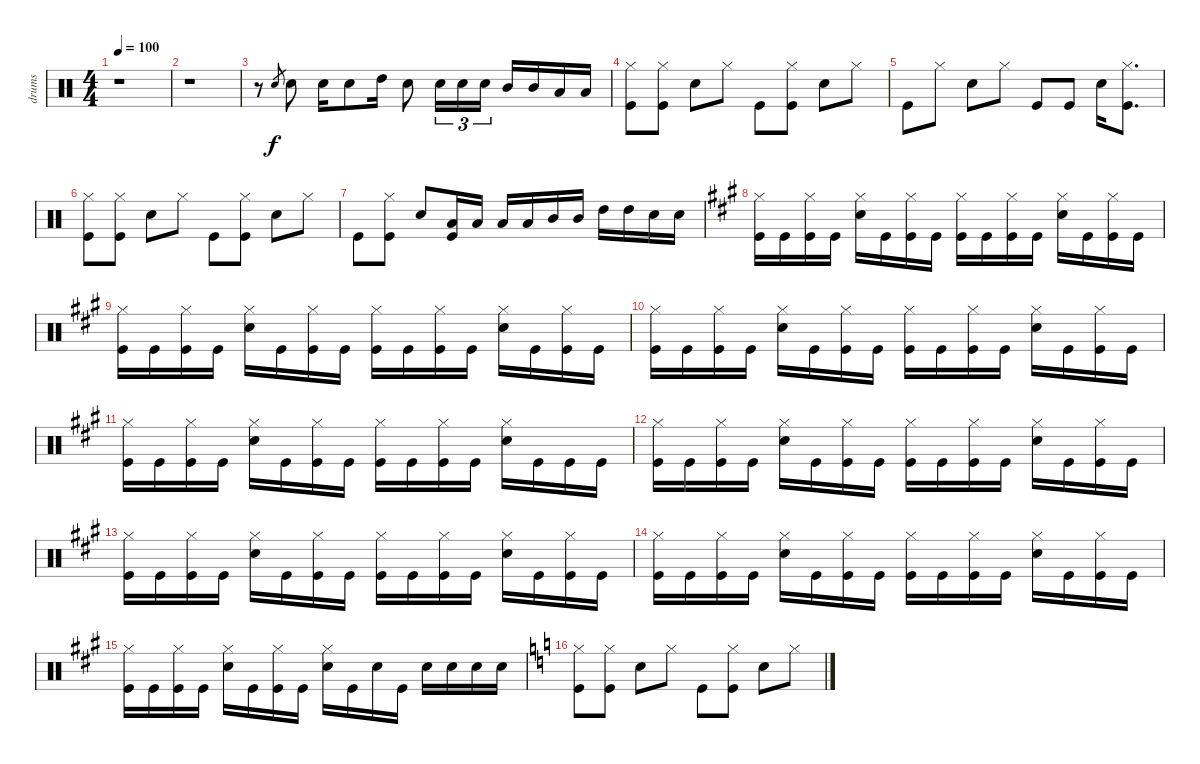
\track ("drums" "drums") {instrument percussion}
\staff {score}
\articulation defaults
\ts (4 4)
\tempo 100
\clef neutral
\ks aminor
r.1{dy f} |
r.1 |
r.8 "Snare (hit) 2".8{gr} "Snare (hit) 2".8 "Snare (hit) 2".16 "Snare (hit) 2".8 "High Tom (hit)".16 "Snare (hit) 2".8 "Snare (hit) 2".16{tu (3 2)} "Snare (hit) 2".16{tu (3 2)} "Snare (hit) 2".16{tu (3 2)} "Mid Tom (hit)".16 "Mid Tom (hit)".16 "Low Tom (hit)".16 "Low Tom (hit)".16 |
("Hi-Hat (closed)" "Kick (hit)").8 ("Hi-Hat (closed)" "Kick (hit)").8 "Snare (hit) 2".8 "Hi-Hat (closed)".8 "Kick (hit)".8 ("Hi-Hat (closed)" "Kick (hit)").8 "Snare (hit) 2".8 "Hi-Hat (closed)".8 |
"Kick (hit)".8 "Hi-Hat (closed)".8 "Snare (hit) 2".8 "Hi-Hat (closed)".8 "Kick (hit)".8 "Kick (hit)".8 "Snare (hit) 2".16 ("Hi-Hat (closed)" "Kick (hit)").8{d} |
("Hi-Hat (closed)" "Kick (hit)").8 ("Hi-Hat (closed)" "Kick (hit)").8 "Snare (hit) 2".8 "Hi-Hat (closed)".8 "Kick (hit)".8 ("Hi-Hat (closed)" "Kick (hit)").8 "Snare (hit) 2".8 "Hi-Hat (closed)".8 |
"Kick (hit)".8 ("Hi-Hat (closed)" "Kick (hit)").8 "Snare (hit) 2".8 ("Low Tom (hit)" "Kick (hit)").16 "Low Tom (hit)".16 "Low Tom (hit)".16 "Low Tom (hit)".16 "Mid Tom (hit)".16 "Mid Tom (hit)".16 "High Tom (hit)".16 "High Tom (hit)".16 "Snare (hit) 2".16 "Snare (hit) 2".16 |
\ks f#minor
("Hi-Hat (closed)" "Kick (hit)").16 "Kick (hit)".16 ("Hi-Hat (closed)" "Kick (hit)").16 "Kick (hit)".16 ("Hi-Hat (closed)" "Snare (hit) 2").16 "Kick (hit)".16 ("Hi-Hat (closed)" "Kick (hit)").16 "Kick (hit)".16 ("Hi-Hat (closed)" "Kick (hit)").16 "Kick (hit)".16 ("Hi-Hat (closed)" "Kick (hit)").16 "Kick (hit)".16 ("Hi-Hat (closed)" "Snare (hit) 2").16 "Kick (hit)".16 ("Hi-Hat (closed)" "Kick (hit)").16 "Kick (hit)".16 |
("Hi-Hat (closed)" "Kick (hit)").16 "Kick (hit)".16 ("Hi-Hat (closed)" "Kick (hit)").16 "Kick (hit)".16 ("Hi-Hat (closed)" "Snare (hit) 2").16 "Kick (hit)".16 ("Hi-Hat (closed)" "Kick (hit)").16 "Kick (hit)".16 ("Hi-Hat (closed)" "Kick (hit)").16 "Kick (hit)".16 ("Hi-Hat (closed)" "Kick (hit)").16 "Kick (hit)".16 ("Hi-Hat (closed)" "Snare (hit) 2").16 "Kick (hit)".16 ("Hi-Hat (closed)" "Kick (hit)").16 "Kick (hit)".16 |
("Hi-Hat (closed)" "Kick (hit)").16 "Kick (hit)".16 ("Hi-Hat (closed)" "Kick (hit)").16 "Kick (hit)".16 ("Hi-Hat (closed)" "Snare (hit) 2").16 "Kick (hit)".16 ("Hi-Hat (closed)" "Kick (hit)").16 "Kick (hit)".16 ("Hi-Hat (closed)" "Kick (hit)").16 "Kick (hit)".16 ("Hi-Hat (closed)" "Kick (hit)").16 "Kick (hit)".16 ("Hi-Hat (closed)" "Snare (hit) 2").16 "Kick (hit)".16 ("Hi-Hat (closed)" "Kick (hit)").16 "Kick (hit)".16 |
("Hi-Hat (closed)" "Kick (hit)").16 "Kick (hit)".16 ("Hi-Hat (closed)" "Kick (hit)").16 "Kick (hit)".16 ("Hi-Hat (closed)" "Snare (hit) 2").16 "Kick (hit)".16 ("Hi-Hat (closed)" "Kick (hit)").16 "Kick (hit)".16 ("Hi-Hat (closed)" "Kick (hit)").16 "Kick (hit)".16 ("Hi-Hat (closed)" "Kick (hit)").16 "Kick (hit)".16 ("Hi-Hat (closed)" "Snare (hit) 2").16 "Kick (hit)".16 "Kick (hit)".16 "Kick (hit)".16 |
("Hi-Hat (closed)" "Kick (hit)").16 "Kick (hit)".16 ("Hi-Hat (closed)" "Kick (hit)").16 "Kick (hit)".16 ("Hi-Hat (closed)" "Snare (hit) 2").16 "Kick (hit)".16 ("Hi-Hat (closed)" "Kick (hit)").16 "Kick (hit)".16 ("Hi-Hat (closed)" "Kick (hit)").16 "Kick (hit)".16 ("Hi-Hat (closed)" "Kick (hit)").16 "Kick (hit)".16 ("Hi-Hat (closed)" "Snare (hit) 2").16 "Kick (hit)".16 ("Hi-Hat (closed)" "Kick (hit)").16 "Kick (hit)".16 |
("Hi-Hat (closed)" "Kick (hit)").16 "Kick (hit)".16 ("Hi-Hat (closed)" "Kick (hit)").16 "Kick (hit)".16 ("Hi-Hat (closed)" "Snare (hit) 2").16 "Kick (hit)".16 ("Hi-Hat (closed)" "Kick (hit)").16 "Kick (hit)".16 ("Hi-Hat (closed)" "Kick (hit)").16 "Kick (hit)".16 ("Hi-Hat (closed)" "Kick (hit)").16 "Kick (hit)".16 ("Hi-Hat (closed)" "Snare (hit) 2").16 "Kick (hit)".16 ("Hi-Hat (closed)" "Kick (hit)").16 "Kick (hit)".16 |
("Hi-Hat (closed)" "Kick (hit)").16 "Kick (hit)".16 ("Hi-Hat (closed)" "Kick (hit)").16 "Kick (hit)".16 ("Hi-Hat (closed)" "Snare (hit) 2").16 "Kick (hit)".16 ("Hi-Hat (closed)" "Kick (hit)").16 "Kick (hit)".16 ("Hi-Hat (closed)" "Kick (hit)").16 "Kick (hit)".16 ("Hi-Hat (closed)" "Kick (hit)").16 "Kick (hit)".16 ("Hi-Hat (closed)" "Snare (hit) 2").16 "Kick (hit)".16 ("Hi-Hat (closed)" "Kick (hit)").16 "Kick (hit)".16 |
("Hi-Hat (closed)" "Kick (hit)").16 "Kick (hit)".16 ("Hi-Hat (closed)" "Kick (hit)").16 "Kick (hit)".16 ("Hi-Hat (closed)" "Snare (hit) 2").16 "Kick (hit)".16 ("Hi-Hat (closed)" "Kick (hit)").16 "Kick (hit)".16 ("Hi-Hat (closed)" "Snare (hit) 2").16 "Kick (hit)".16 "Snare (hit) 2".16 "Kick (hit)".16 "Snare (hit) 2".16 "Snare (hit) 2".16 "Snare (hit) 2".16 "Snare (hit) 2".16 |
\ks aminor
("Hi-Hat (closed)" "Kick (hit)").8 ("Hi-Hat (closed)" "Kick (hit)").8 "Snare (hit) 2".8 "Hi-Hat (closed)".8 "Kick (hit)".8 ("Hi-Hat (closed)" "Kick (hit)").8 "Snare (hit) 2".8 "Hi-Hat (closed)".8
